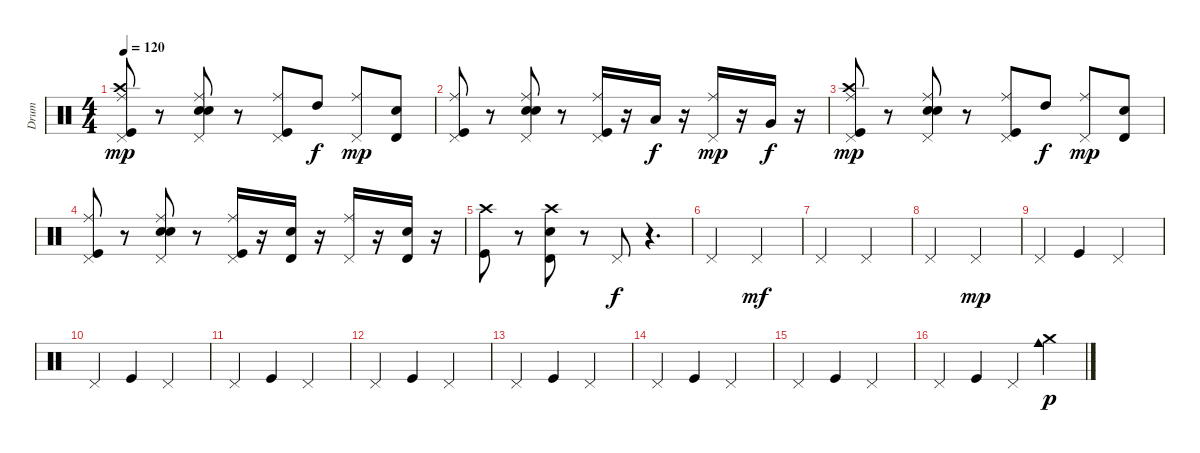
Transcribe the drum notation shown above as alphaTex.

\track ("Drum" "Drum") {instrument percussion}
\staff {score}
\articulation defaults
\ts (4 4)
\tempo 120
\clef neutral
\ks c
("Pedal Hi-Hat (hit)" "Crash high (hit)" "Ride (middle)" "Kick (hit)").8{dy mp} r.8 ("Pedal Hi-Hat (hit)" "Electric Snare (hit)" "Snare (hit) 2" "Ride (middle)").8 r.8 ("Pedal Hi-Hat (hit)" "Ride (middle)" "Kick (hit)").8 "High Tom (hit)".8{dy f} ("Pedal Hi-Hat (hit)" "Ride (middle)").8{dy mp} ("Timbale high (hit)" "Electric Snare (hit)").8 |
("Pedal Hi-Hat (hit)" "Ride (middle)" "Kick (hit)").8 r.8 ("Pedal Hi-Hat (hit)" "Electric Snare (hit)" "Snare (hit) 2" "Ride (middle)").8 r.8 ("Pedal Hi-Hat (hit)" "Ride (middle)" "Kick (hit)").16 r.16 "Low Tom (hit)".16{dy f} r.16 ("Pedal Hi-Hat (hit)" "Ride (middle)").16{dy mp} r.16 "Very Low Tom (hit)".16{dy f} r.16 |
("Pedal Hi-Hat (hit)" "Crash high (hit)" "Ride (middle)" "Kick (hit)").8{dy mp} r.8 ("Pedal Hi-Hat (hit)" "Electric Snare (hit)" "Snare (hit) 2" "Ride (middle)").8 r.8 ("Pedal Hi-Hat (hit)" "Ride (middle)" "Kick (hit)").8 "High Tom (hit)".8{dy f} ("Pedal Hi-Hat (hit)" "Ride (middle)").8{dy mp} ("Timbale high (hit)" "Electric Snare (hit)").8 |
("Pedal Hi-Hat (hit)" "Ride (middle)" "Kick (hit)").8 r.8 ("Pedal Hi-Hat (hit)" "Electric Snare (hit)" "Snare (hit) 2" "Ride (middle)").8 r.8 ("Pedal Hi-Hat (hit)" "Ride (middle)" "Kick (hit)").16 r.16 ("Timbale high (hit)" "Electric Snare (hit)").16 r.16 ("Pedal Hi-Hat (hit)" "Ride (middle)").16 r.16 ("Timbale high (hit)" "Electric Snare (hit)").16 r.16 |
("Crash high (hit)" "Kick (hit)").8 r.8 ("Crash high (hit)" "Timbale high (hit)" "Electric Snare (hit)").8 r.8 "Pedal Hi-Hat (hit)".8{dy f} r.4{d} |
"Pedal Hi-Hat (hit)".2 "Pedal Hi-Hat (hit)".2{dy mf} |
"Pedal Hi-Hat (hit)".2 "Pedal Hi-Hat (hit)".2 |
"Pedal Hi-Hat (hit)".2 "Pedal Hi-Hat (hit)".2{dy mp} |
"Pedal Hi-Hat (hit)".4 "Kick (hit)".4 "Pedal Hi-Hat (hit)".2 |
"Pedal Hi-Hat (hit)".4 "Kick (hit)".4 "Pedal Hi-Hat (hit)".2 |
"Pedal Hi-Hat (hit)".4 "Kick (hit)".4 "Pedal Hi-Hat (hit)".2 |
"Pedal Hi-Hat (hit)".4 "Kick (hit)".4 "Pedal Hi-Hat (hit)".2 |
"Pedal Hi-Hat (hit)".4 "Kick (hit)".4 "Pedal Hi-Hat (hit)".2 |
"Pedal Hi-Hat (hit)".4 "Kick (hit)".4 "Pedal Hi-Hat (hit)".2 |
"Pedal Hi-Hat (hit)".4 "Kick (hit)".4 "Pedal Hi-Hat (hit)".2 |
"Pedal Hi-Hat (hit)".4 "Kick (hit)".4 "Pedal Hi-Hat (hit)".4 ("Crash medium (hit)" "Cowbell medium (hit)").4{dy p}
